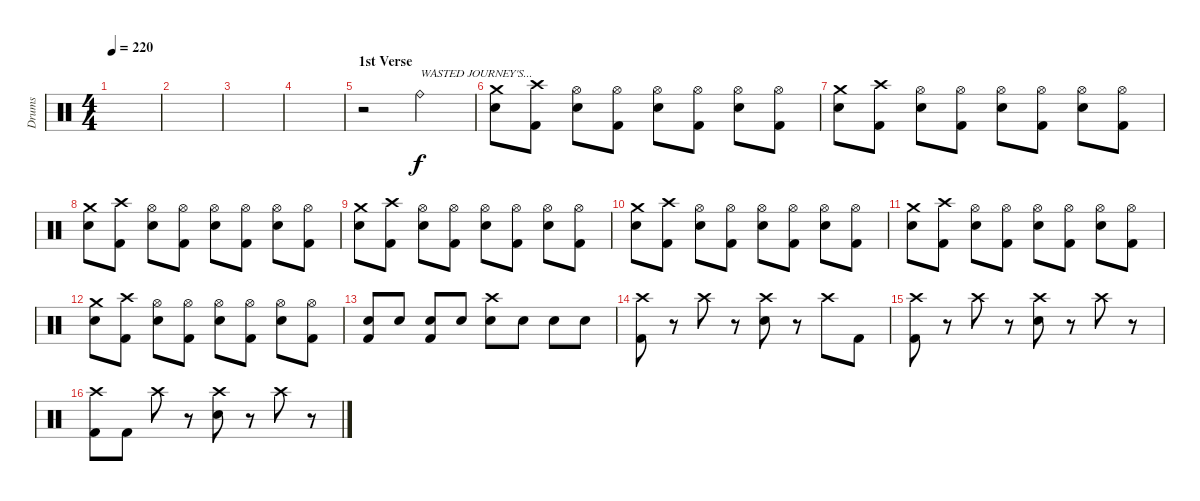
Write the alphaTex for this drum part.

\track ("Drums" "Drums") {instrument percussion}
\staff {score}
\articulation defaults
\ts (4 4)
\tempo 220
\clef neutral
\ks c
|
|
|
|
\section ("" "1st Verse")
r.2 "Ride (bell)".2{txt "WASTED JOURNEY'S..."} |
("Crash medium (hit)" "Electric Snare (hit)").8 ("Crash high (hit)" "Kick (hit) 2").8 ("Hi-Hat (open)" "Electric Snare (hit)").8 ("Hi-Hat (open)" "Kick (hit) 2").8 ("Hi-Hat (open)" "Electric Snare (hit)").8 ("Hi-Hat (open)" "Kick (hit) 2").8 ("Hi-Hat (open)" "Electric Snare (hit)").8 ("Hi-Hat (open)" "Kick (hit) 2").8 |
("Crash medium (hit)" "Electric Snare (hit)").8 ("Crash high (hit)" "Kick (hit) 2").8 ("Hi-Hat (open)" "Electric Snare (hit)").8 ("Hi-Hat (open)" "Kick (hit) 2").8 ("Hi-Hat (open)" "Electric Snare (hit)").8 ("Hi-Hat (open)" "Kick (hit) 2").8 ("Hi-Hat (open)" "Electric Snare (hit)").8 ("Hi-Hat (open)" "Kick (hit) 2").8 |
("Crash medium (hit)" "Electric Snare (hit)").8 ("Crash high (hit)" "Kick (hit) 2").8 ("Hi-Hat (open)" "Electric Snare (hit)").8 ("Hi-Hat (open)" "Kick (hit) 2").8 ("Hi-Hat (open)" "Electric Snare (hit)").8 ("Hi-Hat (open)" "Kick (hit) 2").8 ("Hi-Hat (open)" "Electric Snare (hit)").8 ("Hi-Hat (open)" "Kick (hit) 2").8 |
("Crash medium (hit)" "Electric Snare (hit)").8 ("Crash high (hit)" "Kick (hit) 2").8 ("Hi-Hat (open)" "Electric Snare (hit)").8 ("Hi-Hat (open)" "Kick (hit) 2").8 ("Hi-Hat (open)" "Electric Snare (hit)").8 ("Hi-Hat (open)" "Kick (hit) 2").8 ("Hi-Hat (open)" "Electric Snare (hit)").8 ("Hi-Hat (open)" "Kick (hit) 2").8 |
("Crash medium (hit)" "Electric Snare (hit)").8 ("Crash high (hit)" "Kick (hit) 2").8 ("Hi-Hat (open)" "Electric Snare (hit)").8 ("Hi-Hat (open)" "Kick (hit) 2").8 ("Hi-Hat (open)" "Electric Snare (hit)").8 ("Hi-Hat (open)" "Kick (hit) 2").8 ("Hi-Hat (open)" "Electric Snare (hit)").8 ("Hi-Hat (open)" "Kick (hit) 2").8 |
("Crash medium (hit)" "Electric Snare (hit)").8 ("Crash high (hit)" "Kick (hit) 2").8 ("Hi-Hat (open)" "Electric Snare (hit)").8 ("Hi-Hat (open)" "Kick (hit) 2").8 ("Hi-Hat (open)" "Electric Snare (hit)").8 ("Hi-Hat (open)" "Kick (hit) 2").8 ("Hi-Hat (open)" "Electric Snare (hit)").8 ("Hi-Hat (open)" "Kick (hit) 2").8 |
("Crash medium (hit)" "Electric Snare (hit)").8 ("Crash high (hit)" "Kick (hit) 2").8 ("Hi-Hat (open)" "Electric Snare (hit)").8 ("Hi-Hat (open)" "Kick (hit) 2").8 ("Hi-Hat (open)" "Electric Snare (hit)").8 ("Hi-Hat (open)" "Kick (hit) 2").8 ("Hi-Hat (open)" "Electric Snare (hit)").8 ("Hi-Hat (open)" "Kick (hit) 2").8 |
("Electric Snare (hit)" "Kick (hit) 2").8 "Electric Snare (hit)".8 ("Electric Snare (hit)" "Kick (hit) 2").8 "Electric Snare (hit)".8 ("Crash high (hit)" "Electric Snare (hit)").8 "Electric Snare (hit)".8 "Electric Snare (hit)".8 "Electric Snare (hit)".8 |
("Crash high (hit)" "Kick (hit) 2").8 r.8 "Crash high (hit)".8 r.8 ("Crash high (hit)" "Electric Snare (hit)").8 r.8 "Crash high (hit)".8 "Kick (hit) 2".8 |
("Crash high (hit)" "Kick (hit) 2").8 r.8 "Crash high (hit)".8 r.8 ("Crash high (hit)" "Electric Snare (hit)").8 r.8 "Crash high (hit)".8 r.8 |
("Crash high (hit)" "Kick (hit) 2").8 "Kick (hit) 2".8 "Crash high (hit)".8 r.8 ("Crash high (hit)" "Electric Snare (hit)").8 r.8 "Crash high (hit)".8 r.8
